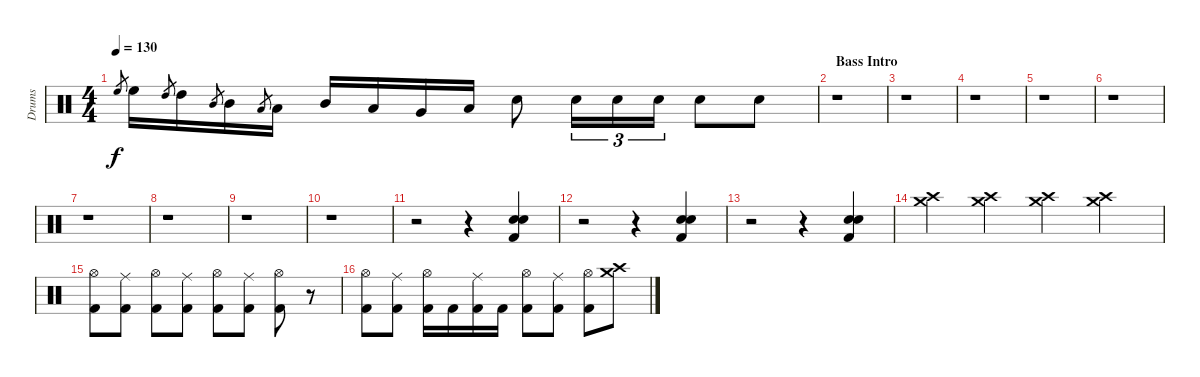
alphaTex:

\track ("Drums" "Drums") {instrument percussion}
\staff {score}
\articulation defaults
\ts (4 4)
\tempo 130
\clef neutral
\ks c "High Floor Tom (hit)".8{gr dy f} "High Floor Tom (hit)".16 "High Tom (hit)".8{gr} "High Tom (hit)".16 "Mid Tom (hit)".8{gr} "Mid Tom (hit)".16 "Low Tom (hit)".8{gr} "Low Tom (hit)".16 "Mid Tom (hit)".16 "Low Tom (hit)".16 "Very Low Tom (hit)".16 "Low Floor Tom (hit)".16 "Electric Snare (hit)".8 "Electric Snare (hit)".16{tu (3 2)} "Electric Snare (hit)".16{tu (3 2)} "Electric Snare (hit)".16{tu (3 2)} "Electric Snare (hit)".8 "Electric Snare (hit)".8
|
\section ("" " Bass Intro")
r.1 |
r.1 |
r.1 |
r.1 |
r.1 |
r.1 |
r.1 |
r.1 |
r.1 |
r.2 r.4 ("Snare (hit) 2" "Electric Snare (hit)" "Kick (hit) 2").4 |
r.2 r.4 ("Snare (hit) 2" "Electric Snare (hit)" "Kick (hit) 2").4 |
r.2 r.4 ("Snare (hit) 2" "Electric Snare (hit)" "Kick (hit) 2").4 |
("Crash medium (hit)" "Crash high (hit)").4 ("Crash medium (hit)" "Crash high (hit)").4 ("Crash medium (hit)" "Crash high (hit)").4 ("Crash medium (hit)" "Crash high (hit)").4 |
("Hi-Hat (open)" "Kick (hit) 2").8 ("Ride (middle)" "Kick (hit) 2").8 ("Hi-Hat (open)" "Kick (hit) 2").8 ("Ride (middle)" "Kick (hit) 2").8 ("Hi-Hat (open)" "Kick (hit) 2").8 ("Ride (middle)" "Kick (hit) 2").8 ("Hi-Hat (open)" "Kick (hit) 2").8 r.8 |
("Hi-Hat (open)" "Kick (hit) 2").8 ("Ride (middle)" "Kick (hit) 2").8 ("Hi-Hat (open)" "Kick (hit) 2").16 "Kick (hit) 2".16 ("Ride (middle)" "Kick (hit) 2").16 "Kick (hit) 2".16 ("Hi-Hat (open)" "Kick (hit) 2").8 ("Ride (middle)" "Kick (hit) 2").8 ("Hi-Hat (open)" "Kick (hit) 2").8 ("Crash high (hit)" "Crash medium (hit)").8
